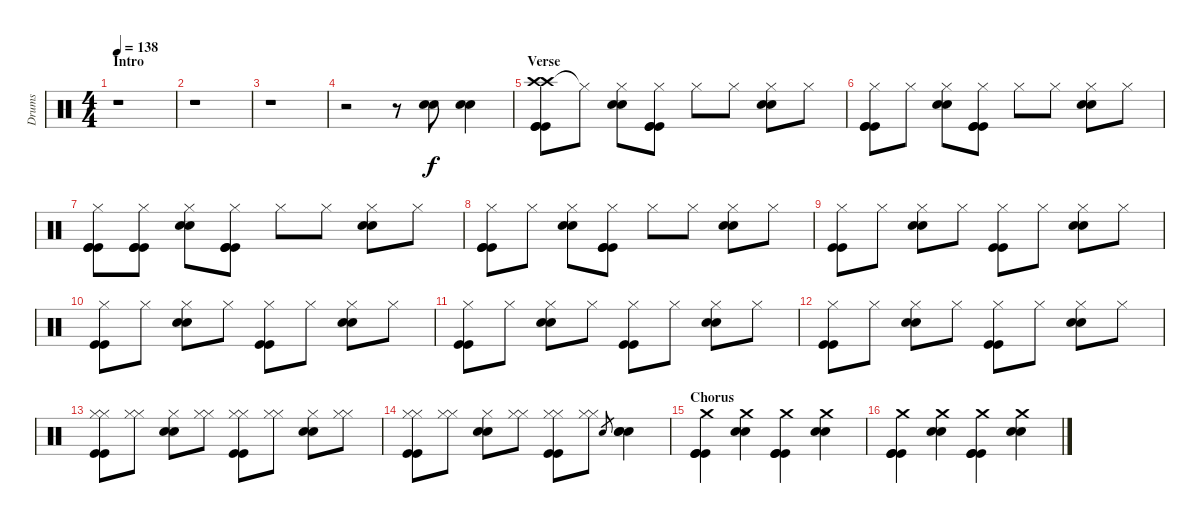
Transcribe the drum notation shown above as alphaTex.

\track ("Drums" "Drums") {instrument percussion}
\staff {score}
\articulation defaults
\ts (4 4)
\section ("" "Intro")
\tempo 138
\clef neutral
\ks c
r.1{dy f} |
r.1 |
r.1 |
r.2 r.8 ("Electric Snare (hit)" "Electric Snare (hit)").8 ("Electric Snare (hit)" "Electric Snare (hit)").4 |
\section ("" "Verse")
("Crash high (hit)" "Crash high (hit)" "Kick (hit)" "Kick (hit)" "Kick (hit)").8 "Hi-Hat (closed)"{t}.8 ("Hi-Hat (closed)" "Electric Snare (hit)" "Electric Snare (hit)").8 ("Hi-Hat (closed)" "Kick (hit)" "Kick (hit)" "Kick (hit)").8 "Hi-Hat (closed)".8 "Hi-Hat (closed)".8 ("Hi-Hat (closed)" "Electric Snare (hit)" "Electric Snare (hit)").8 "Hi-Hat (closed)".8 |
("Hi-Hat (closed)" "Kick (hit)" "Kick (hit)" "Kick (hit)").8 "Hi-Hat (closed)".8 ("Hi-Hat (closed)" "Electric Snare (hit)" "Electric Snare (hit)").8 ("Hi-Hat (closed)" "Kick (hit)" "Kick (hit)" "Kick (hit)").8 "Hi-Hat (closed)".8 "Hi-Hat (closed)".8 ("Hi-Hat (closed)" "Electric Snare (hit)" "Electric Snare (hit)").8 "Hi-Hat (closed)".8 |
("Hi-Hat (closed)" "Kick (hit)" "Kick (hit)" "Kick (hit)").8 ("Hi-Hat (closed)" "Kick (hit)" "Kick (hit)" "Kick (hit)").8 ("Hi-Hat (closed)" "Electric Snare (hit)" "Electric Snare (hit)").8 ("Hi-Hat (closed)" "Kick (hit)" "Kick (hit)" "Kick (hit)").8 "Hi-Hat (closed)".8 "Hi-Hat (closed)".8 ("Hi-Hat (closed)" "Electric Snare (hit)" "Electric Snare (hit)").8 "Hi-Hat (closed)".8 |
("Hi-Hat (closed)" "Kick (hit)" "Kick (hit)" "Kick (hit)").8 "Hi-Hat (closed)".8 ("Hi-Hat (closed)" "Electric Snare (hit)" "Electric Snare (hit)").8 ("Hi-Hat (closed)" "Kick (hit)" "Kick (hit)" "Kick (hit)").8 "Hi-Hat (closed)".8 "Hi-Hat (closed)".8 ("Hi-Hat (closed)" "Electric Snare (hit)" "Electric Snare (hit)").8 "Hi-Hat (closed)".8 |
("Hi-Hat (closed)" "Kick (hit)" "Kick (hit)").8 "Hi-Hat (closed)".8 ("Hi-Hat (closed)" "Electric Snare (hit)" "Electric Snare (hit)").8 "Hi-Hat (closed)".8 ("Hi-Hat (closed)" "Kick (hit)" "Kick (hit)").8 "Hi-Hat (closed)".8 ("Hi-Hat (closed)" "Electric Snare (hit)" "Electric Snare (hit)").8 "Hi-Hat (closed)".8 |
("Hi-Hat (closed)" "Kick (hit)" "Kick (hit)").8 "Hi-Hat (closed)".8 ("Hi-Hat (closed)" "Electric Snare (hit)" "Electric Snare (hit)").8 "Hi-Hat (closed)".8 ("Hi-Hat (closed)" "Kick (hit)" "Kick (hit)").8 "Hi-Hat (closed)".8 ("Hi-Hat (closed)" "Electric Snare (hit)" "Electric Snare (hit)").8 "Hi-Hat (closed)".8 |
("Hi-Hat (closed)" "Kick (hit)" "Kick (hit)").8 "Hi-Hat (closed)".8 ("Hi-Hat (closed)" "Electric Snare (hit)" "Electric Snare (hit)").8 "Hi-Hat (closed)".8 ("Hi-Hat (closed)" "Kick (hit)" "Kick (hit)").8 "Hi-Hat (closed)".8 ("Hi-Hat (closed)" "Electric Snare (hit)" "Electric Snare (hit)").8 "Hi-Hat (closed)".8 |
("Hi-Hat (closed)" "Kick (hit)" "Kick (hit)").8 "Hi-Hat (closed)".8 ("Hi-Hat (closed)" "Electric Snare (hit)" "Electric Snare (hit)").8 "Hi-Hat (closed)".8 ("Hi-Hat (closed)" "Kick (hit)" "Kick (hit)").8 "Hi-Hat (closed)".8 ("Hi-Hat (closed)" "Electric Snare (hit)" "Electric Snare (hit)").8 "Hi-Hat (closed)".8 |
("Hi-Hat (closed)" "Hi-Hat (closed)" "Kick (hit)" "Kick (hit)").8 ("Hi-Hat (closed)" "Hi-Hat (closed)").8 ("Hi-Hat (closed)" "Electric Snare (hit)" "Electric Snare (hit)").8 ("Hi-Hat (closed)" "Hi-Hat (closed)").8 ("Hi-Hat (closed)" "Hi-Hat (closed)" "Kick (hit)" "Kick (hit)").8 ("Hi-Hat (closed)" "Hi-Hat (closed)").8 ("Hi-Hat (closed)" "Electric Snare (hit)" "Electric Snare (hit)").8 ("Hi-Hat (closed)" "Hi-Hat (closed)").8 |
("Hi-Hat (closed)" "Hi-Hat (closed)" "Kick (hit)" "Kick (hit)").8 ("Hi-Hat (closed)" "Hi-Hat (closed)").8 ("Hi-Hat (closed)" "Electric Snare (hit)" "Electric Snare (hit)").8 ("Hi-Hat (closed)" "Hi-Hat (closed)").8 ("Hi-Hat (closed)" "Hi-Hat (closed)" "Kick (hit)" "Kick (hit)").8 ("Hi-Hat (closed)" "Hi-Hat (closed)").8 "Snare (hit) 2".8{gr} ("Snare (hit) 2" "Snare (hit) 2" "Snare (hit) 2").4 |
\section ("" "Chorus")
("Crash medium (hit)" "Kick (hit)" "Kick (hit)" "Kick (hit)").4 ("Crash medium (hit)" "Electric Snare (hit)" "Electric Snare (hit)").4 ("Crash medium (hit)" "Kick (hit)" "Kick (hit)" "Kick (hit)").4 ("Crash medium (hit)" "Electric Snare (hit)" "Electric Snare (hit)").4 |
("Crash medium (hit)" "Kick (hit)" "Kick (hit)" "Kick (hit)").4 ("Crash medium (hit)" "Electric Snare (hit)" "Electric Snare (hit)").4 ("Crash medium (hit)" "Kick (hit)" "Kick (hit)" "Kick (hit)").4 ("Crash medium (hit)" "Electric Snare (hit)" "Electric Snare (hit)").4
